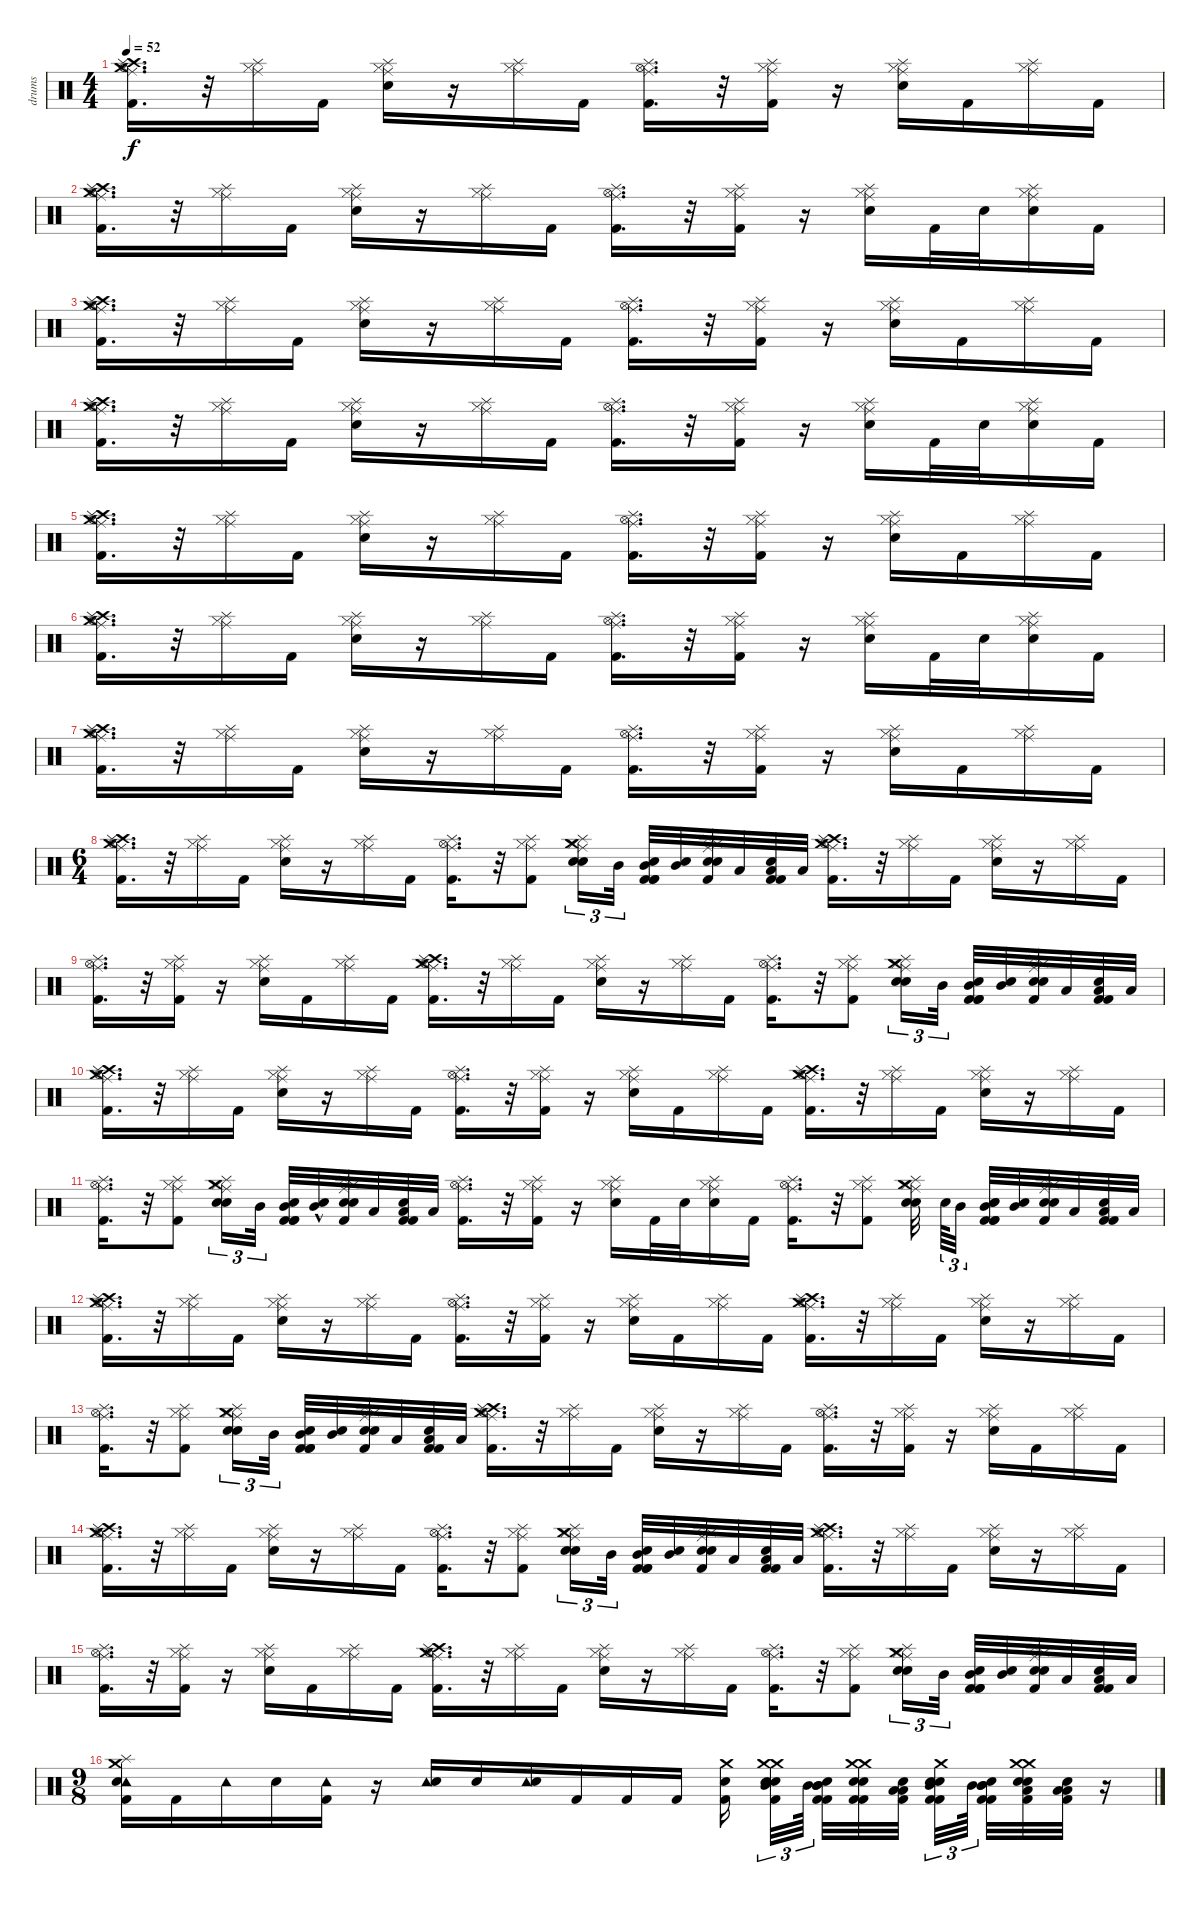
\track ("drums" "drums") {instrument percussion}
\staff {score}
\articulation defaults
\ts (4 4)
\tempo 52
\clef neutral
\ks c
("Crash medium (hit)" "Crash high (hit)" "Kick (hit) 2" "Ride (middle)" "Hi-Hat (open)" "Splash (hit)").16{d dy f} r.32 ("Ride (middle)" "Hi-Hat (closed)" "Splash (hit)").16 "Kick (hit) 2".16 ("Snare (hit) 2" "Ride (middle)" "Hi-Hat (closed)" "Splash (hit)").16 r.16 ("Ride (middle)" "Hi-Hat (closed)" "Splash (hit)").16 "Kick (hit) 2".16 ("Kick (hit) 2" "Ride (middle)" "Hi-Hat (open)" "Splash (hit)").16{d} r.32 ("Kick (hit) 2" "Ride (middle)" "Hi-Hat (closed)" "Splash (hit)").16 r.16 ("Snare (hit) 2" "Ride (middle)" "Hi-Hat (closed)" "Splash (hit)").16 "Kick (hit) 2".16 ("Ride (middle)" "Hi-Hat (closed)" "Splash (hit)").16 "Kick (hit) 2".16 |
("Crash medium (hit)" "Crash high (hit)" "Kick (hit) 2" "Ride (middle)" "Hi-Hat (open)" "Splash (hit)").16{d} r.32 ("Ride (middle)" "Hi-Hat (closed)" "Splash (hit)").16 "Kick (hit) 2".16 ("Snare (hit) 2" "Ride (middle)" "Hi-Hat (closed)" "Splash (hit)").16 r.16 ("Ride (middle)" "Hi-Hat (closed)" "Splash (hit)").16 "Kick (hit) 2".16 ("Kick (hit) 2" "Ride (middle)" "Hi-Hat (open)" "Splash (hit)").16{d} r.32 ("Kick (hit) 2" "Ride (middle)" "Hi-Hat (closed)" "Splash (hit)").16 r.16 ("Snare (hit) 2" "Ride (middle)" "Hi-Hat (closed)" "Splash (hit)").16 "Kick (hit) 2".32 "Snare (hit) 2".32 ("Hi-Hat (closed)" "Splash (hit)" "Ride (middle)" "Snare (hit) 2").16 "Kick (hit) 2".16 |
("Crash medium (hit)" "Crash high (hit)" "Kick (hit) 2" "Ride (middle)" "Hi-Hat (open)" "Splash (hit)").16{d} r.32 ("Ride (middle)" "Hi-Hat (closed)" "Splash (hit)").16 "Kick (hit) 2".16 ("Snare (hit) 2" "Ride (middle)" "Hi-Hat (closed)" "Splash (hit)").16 r.16 ("Ride (middle)" "Hi-Hat (closed)" "Splash (hit)").16 "Kick (hit) 2".16 ("Kick (hit) 2" "Ride (middle)" "Hi-Hat (open)" "Splash (hit)").16{d} r.32 ("Kick (hit) 2" "Ride (middle)" "Hi-Hat (closed)" "Splash (hit)").16 r.16 ("Snare (hit) 2" "Ride (middle)" "Hi-Hat (closed)" "Splash (hit)").16 "Kick (hit) 2".16 ("Ride (middle)" "Hi-Hat (closed)" "Splash (hit)").16 "Kick (hit) 2".16 |
("Crash medium (hit)" "Crash high (hit)" "Kick (hit) 2" "Ride (middle)" "Hi-Hat (open)" "Splash (hit)").16{d} r.32 ("Ride (middle)" "Hi-Hat (closed)" "Splash (hit)").16 "Kick (hit) 2".16 ("Snare (hit) 2" "Ride (middle)" "Hi-Hat (closed)" "Splash (hit)").16 r.16 ("Ride (middle)" "Hi-Hat (closed)" "Splash (hit)").16 "Kick (hit) 2".16 ("Kick (hit) 2" "Ride (middle)" "Hi-Hat (open)" "Splash (hit)").16{d} r.32 ("Kick (hit) 2" "Ride (middle)" "Hi-Hat (closed)" "Splash (hit)").16 r.16 ("Snare (hit) 2" "Ride (middle)" "Hi-Hat (closed)" "Splash (hit)").16 "Kick (hit) 2".32 "Snare (hit) 2".32 ("Hi-Hat (closed)" "Splash (hit)" "Ride (middle)" "Snare (hit) 2").16 "Kick (hit) 2".16 |
("Crash medium (hit)" "Crash high (hit)" "Kick (hit) 2" "Ride (middle)" "Hi-Hat (open)" "Splash (hit)").16{d} r.32 ("Ride (middle)" "Hi-Hat (closed)" "Splash (hit)").16 "Kick (hit) 2".16 ("Snare (hit) 2" "Ride (middle)" "Hi-Hat (closed)" "Splash (hit)").16 r.16 ("Ride (middle)" "Hi-Hat (closed)" "Splash (hit)").16 "Kick (hit) 2".16 ("Kick (hit) 2" "Ride (middle)" "Hi-Hat (open)" "Splash (hit)").16{d} r.32 ("Kick (hit) 2" "Ride (middle)" "Hi-Hat (closed)" "Splash (hit)").16 r.16 ("Snare (hit) 2" "Ride (middle)" "Hi-Hat (closed)" "Splash (hit)").16 "Kick (hit) 2".16 ("Ride (middle)" "Hi-Hat (closed)" "Splash (hit)").16 "Kick (hit) 2".16 |
("Crash medium (hit)" "Crash high (hit)" "Kick (hit) 2" "Ride (middle)" "Hi-Hat (open)" "Splash (hit)").16{d} r.32 ("Ride (middle)" "Hi-Hat (closed)" "Splash (hit)").16 "Kick (hit) 2".16 ("Snare (hit) 2" "Ride (middle)" "Hi-Hat (closed)" "Splash (hit)").16 r.16 ("Ride (middle)" "Hi-Hat (closed)" "Splash (hit)").16 "Kick (hit) 2".16 ("Kick (hit) 2" "Ride (middle)" "Hi-Hat (open)" "Splash (hit)").16{d} r.32 ("Kick (hit) 2" "Ride (middle)" "Hi-Hat (closed)" "Splash (hit)").16 r.16 ("Snare (hit) 2" "Ride (middle)" "Hi-Hat (closed)" "Splash (hit)").16 "Kick (hit) 2".32 "Snare (hit) 2".32 ("Hi-Hat (closed)" "Splash (hit)" "Ride (middle)" "Snare (hit) 2").16 "Kick (hit) 2".16 |
("Crash medium (hit)" "Crash high (hit)" "Kick (hit) 2" "Ride (middle)" "Hi-Hat (open)" "Splash (hit)").16{d} r.32 ("Ride (middle)" "Hi-Hat (closed)" "Splash (hit)").16 "Kick (hit) 2".16 ("Snare (hit) 2" "Ride (middle)" "Hi-Hat (closed)" "Splash (hit)").16 r.16 ("Ride (middle)" "Hi-Hat (closed)" "Splash (hit)").16 "Kick (hit) 2".16 ("Kick (hit) 2" "Ride (middle)" "Hi-Hat (open)" "Splash (hit)").16{d} r.32 ("Kick (hit) 2" "Ride (middle)" "Hi-Hat (closed)" "Splash (hit)").16 r.16 ("Snare (hit) 2" "Ride (middle)" "Hi-Hat (closed)" "Splash (hit)").16 "Kick (hit) 2".16 ("Ride (middle)" "Hi-Hat (closed)" "Splash (hit)").16 "Kick (hit) 2".16 |
\ts (6 4)
("Crash medium (hit)" "Crash high (hit)" "Kick (hit) 2" "Ride (middle)" "Hi-Hat (open)" "Splash (hit)").16{d} r.32 ("Ride (middle)" "Hi-Hat (closed)" "Splash (hit)").16 "Kick (hit) 2".16 ("Snare (hit) 2" "Ride (middle)" "Hi-Hat (closed)" "Splash (hit)").16 r.16 ("Ride (middle)" "Hi-Hat (closed)" "Splash (hit)").16 "Kick (hit) 2".16 ("Kick (hit) 2" "Ride (middle)" "Hi-Hat (open)" "Splash (hit)").16{d} r.32 ("Kick (hit) 2" "Ride (middle)" "Hi-Hat (closed)" "Splash (hit)").8 ("Snare (hit) 2" "Ride (middle)" "Hi-Hat (closed)" "Splash (hit)" "Snare (hit) 2" "Crash medium (hit)").16{tu (3 2)} "Mid Tom (hit)".32{tu (3 2)} ("Kick (hit) 2" "Kick (hit) 2" "Mid Tom (hit)" "Kick (hit) 2" "Snare (hit) 2").32 ("Mid Tom (hit)" "Snare (hit) 2").32 ("Hi-Hat (closed)" "Splash (hit)" "Ride (middle)" "Snare (hit) 2" "Snare (hit) 2" "Kick (hit) 2").32 "Low Tom (hit)".32 ("Kick (hit) 2" "Low Tom (hit)" "Kick (hit) 2" "Snare (hit) 2").32 "Low Tom (hit)".32 ("Crash medium (hit)" "Crash high (hit)" "Kick (hit) 2" "Ride (middle)" "Hi-Hat (open)" "Splash (hit)").16{d} r.32 ("Ride (middle)" "Hi-Hat (closed)" "Splash (hit)").16 "Kick (hit) 2".16 ("Snare (hit) 2" "Ride (middle)" "Hi-Hat (closed)" "Splash (hit)").16 r.16 ("Ride (middle)" "Hi-Hat (closed)" "Splash (hit)").16 "Kick (hit) 2".16 |
("Kick (hit) 2" "Ride (middle)" "Hi-Hat (open)" "Splash (hit)").16{d} r.32 ("Kick (hit) 2" "Ride (middle)" "Hi-Hat (closed)" "Splash (hit)").16 r.16 ("Snare (hit) 2" "Ride (middle)" "Hi-Hat (closed)" "Splash (hit)").16 "Kick (hit) 2".16 ("Ride (middle)" "Hi-Hat (closed)" "Splash (hit)").16 "Kick (hit) 2".16 ("Crash medium (hit)" "Crash high (hit)" "Kick (hit) 2" "Ride (middle)" "Hi-Hat (open)" "Splash (hit)").16{d} r.32 ("Ride (middle)" "Hi-Hat (closed)" "Splash (hit)").16 "Kick (hit) 2".16 ("Snare (hit) 2" "Ride (middle)" "Hi-Hat (closed)" "Splash (hit)").16 r.16 ("Ride (middle)" "Hi-Hat (closed)" "Splash (hit)").16 "Kick (hit) 2".16 ("Kick (hit) 2" "Ride (middle)" "Hi-Hat (open)" "Splash (hit)").16{d} r.32 ("Kick (hit) 2" "Ride (middle)" "Hi-Hat (closed)" "Splash (hit)").8 ("Snare (hit) 2" "Ride (middle)" "Hi-Hat (closed)" "Splash (hit)" "Snare (hit) 2" "Crash medium (hit)").16{tu (3 2)} "Mid Tom (hit)".32{tu (3 2)} ("Kick (hit) 2" "Kick (hit) 2" "Mid Tom (hit)" "Kick (hit) 2" "Snare (hit) 2").32 ("Mid Tom (hit)" "Snare (hit) 2").32 ("Hi-Hat (closed)" "Splash (hit)" "Ride (middle)" "Snare (hit) 2" "Snare (hit) 2" "Kick (hit) 2").32 "Low Tom (hit)".32 ("Kick (hit) 2" "Low Tom (hit)" "Kick (hit) 2" "Snare (hit) 2").32 "Low Tom (hit)".32 |
("Crash medium (hit)" "Crash high (hit)" "Kick (hit) 2" "Ride (middle)" "Hi-Hat (open)" "Splash (hit)").16{d} r.32 ("Ride (middle)" "Hi-Hat (closed)" "Splash (hit)").16 "Kick (hit) 2".16 ("Snare (hit) 2" "Ride (middle)" "Hi-Hat (closed)" "Splash (hit)").16 r.16 ("Ride (middle)" "Hi-Hat (closed)" "Splash (hit)").16 "Kick (hit) 2".16 ("Kick (hit) 2" "Ride (middle)" "Hi-Hat (open)" "Splash (hit)").16{d} r.32 ("Kick (hit) 2" "Ride (middle)" "Hi-Hat (closed)" "Splash (hit)").16 r.16 ("Snare (hit) 2" "Ride (middle)" "Hi-Hat (closed)" "Splash (hit)").16 "Kick (hit) 2".16 ("Ride (middle)" "Hi-Hat (closed)" "Splash (hit)").16 "Kick (hit) 2".16 ("Crash medium (hit)" "Crash high (hit)" "Kick (hit) 2" "Ride (middle)" "Hi-Hat (open)" "Splash (hit)").16{d} r.32 ("Ride (middle)" "Hi-Hat (closed)" "Splash (hit)").16 "Kick (hit) 2".16 ("Snare (hit) 2" "Ride (middle)" "Hi-Hat (closed)" "Splash (hit)").16 r.16 ("Ride (middle)" "Hi-Hat (closed)" "Splash (hit)").16 "Kick (hit) 2".16 |
("Kick (hit) 2" "Ride (middle)" "Hi-Hat (open)" "Splash (hit)").16{d} r.32 ("Kick (hit) 2" "Ride (middle)" "Hi-Hat (closed)" "Splash (hit)").8 ("Snare (hit) 2" "Ride (middle)" "Hi-Hat (closed)" "Splash (hit)" "Snare (hit) 2" "Crash medium (hit)").16{tu (3 2)} "Mid Tom (hit)".32{tu (3 2)} ("Kick (hit) 2" "Kick (hit) 2" "Mid Tom (hit)" "Kick (hit) 2" "Snare (hit) 2").32 ("Mid Tom (hit)"{hac} "Snare (hit) 2").32 ("Hi-Hat (closed)" "Splash (hit)" "Ride (middle)" "Snare (hit) 2" "Snare (hit) 2" "Kick (hit) 2").32 "Low Tom (hit)".32 ("Kick (hit) 2" "Low Tom (hit)" "Kick (hit) 2" "Snare (hit) 2").32 "Low Tom (hit)".32 ("Kick (hit) 2" "Ride (middle)" "Hi-Hat (open)" "Splash (hit)").16{d} r.32 ("Kick (hit) 2" "Ride (middle)" "Hi-Hat (closed)" "Splash (hit)").16 r.16 ("Snare (hit) 2" "Ride (middle)" "Hi-Hat (closed)" "Splash (hit)").16 "Kick (hit) 2".32 "Snare (hit) 2".32 ("Hi-Hat (closed)" "Splash (hit)" "Ride (middle)" "Snare (hit) 2").16 "Kick (hit) 2".16 ("Kick (hit) 2" "Ride (middle)" "Hi-Hat (open)" "Splash (hit)").16{d} r.32 ("Kick (hit) 2" "Ride (middle)" "Hi-Hat (closed)" "Splash (hit)").8 ("Snare (hit) 2" "Ride (middle)" "Hi-Hat (closed)" "Splash (hit)" "Snare (hit) 2" "Crash medium (hit)").32 "Snare (hit) 2".64{tu (3 2)} "Mid Tom (hit)".32{tu (3 2)} ("Kick (hit) 2" "Snare (hit) 2" "Kick (hit) 2" "Mid Tom (hit)" "Kick (hit) 2" "Snare (hit) 2").32 ("Mid Tom (hit)" "Snare (hit) 2").32 ("Hi-Hat (closed)" "Splash (hit)" "Ride (middle)" "Snare (hit) 2" "Snare (hit) 2" "Kick (hit) 2").32 "Low Tom (hit)".32 ("Kick (hit) 2" "Low Tom (hit)" "Kick (hit) 2" "Snare (hit) 2").32 "Low Tom (hit)".32 |
("Crash medium (hit)" "Crash high (hit)" "Kick (hit) 2" "Ride (middle)" "Hi-Hat (open)" "Splash (hit)").16{d} r.32 ("Ride (middle)" "Hi-Hat (closed)" "Splash (hit)").16 "Kick (hit) 2".16 ("Snare (hit) 2" "Ride (middle)" "Hi-Hat (closed)" "Splash (hit)").16 r.16 ("Ride (middle)" "Hi-Hat (closed)" "Splash (hit)").16 "Kick (hit) 2".16 ("Kick (hit) 2" "Ride (middle)" "Hi-Hat (open)" "Splash (hit)").16{d} r.32 ("Kick (hit) 2" "Ride (middle)" "Hi-Hat (closed)" "Splash (hit)").16 r.16 ("Snare (hit) 2" "Ride (middle)" "Hi-Hat (closed)" "Splash (hit)").16 "Kick (hit) 2".16 ("Ride (middle)" "Hi-Hat (closed)" "Splash (hit)").16 "Kick (hit) 2".16 ("Crash medium (hit)" "Crash high (hit)" "Kick (hit) 2" "Ride (middle)" "Hi-Hat (open)" "Splash (hit)").16{d} r.32 ("Ride (middle)" "Hi-Hat (closed)" "Splash (hit)").16 "Kick (hit) 2".16 ("Snare (hit) 2" "Ride (middle)" "Hi-Hat (closed)" "Splash (hit)").16 r.16 ("Ride (middle)" "Hi-Hat (closed)" "Splash (hit)").16 "Kick (hit) 2".16 |
("Kick (hit) 2" "Ride (middle)" "Hi-Hat (open)" "Splash (hit)").16{d} r.32 ("Kick (hit) 2" "Ride (middle)" "Hi-Hat (closed)" "Splash (hit)").8 ("Snare (hit) 2" "Ride (middle)" "Hi-Hat (closed)" "Splash (hit)" "Snare (hit) 2" "Crash medium (hit)").16{tu (3 2)} "Mid Tom (hit)".32{tu (3 2)} ("Kick (hit) 2" "Kick (hit) 2" "Mid Tom (hit)" "Kick (hit) 2" "Snare (hit) 2").32 ("Mid Tom (hit)" "Snare (hit) 2").32 ("Hi-Hat (closed)" "Splash (hit)" "Ride (middle)" "Snare (hit) 2" "Snare (hit) 2" "Kick (hit) 2").32 "Low Tom (hit)".32 ("Kick (hit) 2" "Low Tom (hit)" "Kick (hit) 2" "Snare (hit) 2").32 "Low Tom (hit)".32 ("Crash medium (hit)" "Crash high (hit)" "Kick (hit) 2" "Ride (middle)" "Hi-Hat (open)" "Splash (hit)").16{d} r.32 ("Ride (middle)" "Hi-Hat (closed)" "Splash (hit)").16 "Kick (hit) 2".16 ("Snare (hit) 2" "Ride (middle)" "Hi-Hat (closed)" "Splash (hit)").16 r.16 ("Ride (middle)" "Hi-Hat (closed)" "Splash (hit)").16 "Kick (hit) 2".16 ("Kick (hit) 2" "Ride (middle)" "Hi-Hat (open)" "Splash (hit)").16{d} r.32 ("Kick (hit) 2" "Ride (middle)" "Hi-Hat (closed)" "Splash (hit)").16 r.16 ("Snare (hit) 2" "Ride (middle)" "Hi-Hat (closed)" "Splash (hit)").16 "Kick (hit) 2".16 ("Ride (middle)" "Hi-Hat (closed)" "Splash (hit)").16 "Kick (hit) 2".16 |
("Crash medium (hit)" "Crash high (hit)" "Kick (hit) 2" "Ride (middle)" "Hi-Hat (open)" "Splash (hit)").16{d} r.32 ("Ride (middle)" "Hi-Hat (closed)" "Splash (hit)").16 "Kick (hit) 2".16 ("Snare (hit) 2" "Ride (middle)" "Hi-Hat (closed)" "Splash (hit)").16 r.16 ("Ride (middle)" "Hi-Hat (closed)" "Splash (hit)").16 "Kick (hit) 2".16 ("Kick (hit) 2" "Ride (middle)" "Hi-Hat (open)" "Splash (hit)").16{d} r.32 ("Kick (hit) 2" "Ride (middle)" "Hi-Hat (closed)" "Splash (hit)").8 ("Snare (hit) 2" "Ride (middle)" "Hi-Hat (closed)" "Splash (hit)" "Snare (hit) 2" "Crash medium (hit)").16{tu (3 2)} "Mid Tom (hit)".32{tu (3 2)} ("Kick (hit) 2" "Kick (hit) 2" "Mid Tom (hit)" "Kick (hit) 2" "Snare (hit) 2").32 ("Mid Tom (hit)" "Snare (hit) 2").32 ("Hi-Hat (closed)" "Splash (hit)" "Ride (middle)" "Snare (hit) 2" "Snare (hit) 2" "Kick (hit) 2").32 "Low Tom (hit)".32 ("Kick (hit) 2" "Low Tom (hit)" "Kick (hit) 2" "Snare (hit) 2").32 "Low Tom (hit)".32 ("Crash medium (hit)" "Crash high (hit)" "Kick (hit) 2" "Ride (middle)" "Hi-Hat (open)" "Splash (hit)").16{d} r.32 ("Ride (middle)" "Hi-Hat (closed)" "Splash (hit)").16 "Kick (hit) 2".16 ("Snare (hit) 2" "Ride (middle)" "Hi-Hat (closed)" "Splash (hit)").16 r.16 ("Ride (middle)" "Hi-Hat (closed)" "Splash (hit)").16 "Kick (hit) 2".16 |
("Kick (hit) 2" "Ride (middle)" "Hi-Hat (open)" "Splash (hit)").16{d} r.32 ("Kick (hit) 2" "Ride (middle)" "Hi-Hat (closed)" "Splash (hit)").16 r.16 ("Snare (hit) 2" "Ride (middle)" "Hi-Hat (closed)" "Splash (hit)").16 "Kick (hit) 2".16 ("Ride (middle)" "Hi-Hat (closed)" "Splash (hit)").16 "Kick (hit) 2".16 ("Crash medium (hit)" "Crash high (hit)" "Kick (hit) 2" "Ride (middle)" "Hi-Hat (open)" "Splash (hit)").16{d} r.32 ("Ride (middle)" "Hi-Hat (closed)" "Splash (hit)").16 "Kick (hit) 2".16 ("Snare (hit) 2" "Ride (middle)" "Hi-Hat (closed)" "Splash (hit)").16 r.16 ("Ride (middle)" "Hi-Hat (closed)" "Splash (hit)").16 "Kick (hit) 2".16 ("Kick (hit) 2" "Ride (middle)" "Hi-Hat (open)" "Splash (hit)").16{d} r.32 ("Kick (hit) 2" "Ride (middle)" "Hi-Hat (closed)" "Splash (hit)").8 ("Snare (hit) 2" "Ride (middle)" "Hi-Hat (closed)" "Splash (hit)" "Snare (hit) 2" "Crash medium (hit)").16{tu (3 2)} "Mid Tom (hit)".32{tu (3 2)} ("Kick (hit) 2" "Kick (hit) 2" "Mid Tom (hit)" "Kick (hit) 2" "Snare (hit) 2").32 ("Mid Tom (hit)" "Snare (hit) 2").32 ("Hi-Hat (closed)" "Splash (hit)" "Ride (middle)" "Snare (hit) 2" "Snare (hit) 2" "Kick (hit) 2").32 "Low Tom (hit)".32 ("Kick (hit) 2" "Low Tom (hit)" "Kick (hit) 2" "Snare (hit) 2").32 "Low Tom (hit)".32 |
\ts (9 8)
("Crash medium (hit)" "Splash (hit)" "Tambourine (hit)" "Snare (hit) 2" "Kick (hit) 2").16 "Kick (hit) 2".16 "Tambourine (hit)".16 "Snare (hit) 2".16 ("Tambourine (hit)" "Kick (hit) 2").16 r.16 ("Tambourine (hit)" "Snare (hit) 2").16 "Snare (hit) 2".16 ("Tambourine (hit)" "Snare (hit) 2").16 "Kick (hit) 2".16 "Kick (hit) 2".16 "Kick (hit) 2".16 ("Kick (hit) 2" "Crash medium (hit)" "Snare (hit) 2").16 ("Snare (hit) 2" "Crash medium (hit)" "Snare (hit) 2" "Crash medium (hit)" "Mid Tom (hit)" "Kick (hit) 2").32{tu (3 2)} "Mid Tom (hit)".64{tu (3 2)} ("Kick (hit) 2" "Mid Tom (hit)" "Kick (hit) 2" "Snare (hit) 2" "Mid Tom (hit)").32 ("Kick (hit) 2" "Crash medium (hit)" "Snare (hit) 2" "Snare (hit) 2" "Kick (hit) 2" "Crash medium (hit)").32 ("Low Tom (hit)" "Kick (hit) 2" "Snare (hit) 2" "Low Tom (hit)").32 ("Kick (hit) 2" "Snare (hit) 2" "Crash medium (hit)" "Mid Tom (hit)" "Kick (hit) 2" "Snare (hit) 2").32{tu (3 2)} "Mid Tom (hit)".64{tu (3 2)} ("Kick (hit) 2" "Mid Tom (hit)" "Kick (hit) 2" "Snare (hit) 2" "Mid Tom (hit)").32 ("Snare (hit) 2" "Crash medium (hit)" "Snare (hit) 2" "Kick (hit) 2" "Crash medium (hit)" "Low Tom (hit)").32 ("Low Tom (hit)" "Kick (hit) 2" "Snare (hit) 2" "Low Tom (hit)").32 r.16
